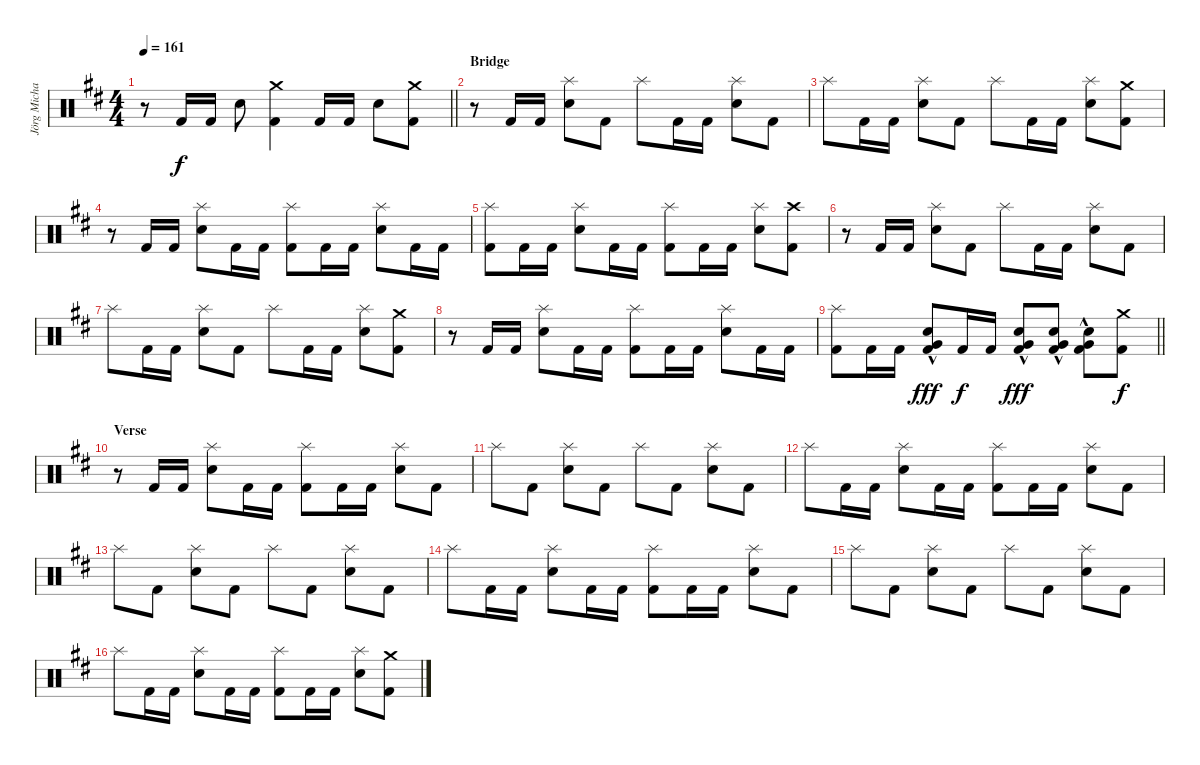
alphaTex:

\track ("Jörg Michael" "Jörg Micha") {instrument percussion}
\staff {score}
\articulation defaults
\ts (4 4)
\tempo 161
\clef neutral
\barLineRight lightlight
\ks bminor
r.8{dy f} "Kick (hit) 2".16 "Kick (hit) 2".16 "Snare (hit) 2".8 ("Crash medium (hit)" "Kick (hit) 2").4 "Kick (hit) 2".16 "Kick (hit) 2".16 "Snare (hit) 2".8 ("Crash medium (hit)" "Kick (hit) 2").8 |
\section ("" "Bridge")
r.8 "Kick (hit) 2".16 "Kick (hit) 2".16 ("Splash (hit)" "Snare (hit) 2").8 "Kick (hit) 2".8 "Splash (hit)".8 "Kick (hit) 2".16 "Kick (hit) 2".16 ("Splash (hit)" "Snare (hit) 2").8 "Kick (hit) 2".8 |
"Splash (hit)".8 "Kick (hit) 2".16 "Kick (hit) 2".16 ("Splash (hit)" "Snare (hit) 2").8 "Kick (hit) 2".8 "Splash (hit)".8 "Kick (hit) 2".16 "Kick (hit) 2".16 ("Splash (hit)" "Snare (hit) 2").8 ("Crash medium (hit)" "Kick (hit) 2").8 |
r.8 "Kick (hit) 2".16 "Kick (hit) 2".16 ("Splash (hit)" "Snare (hit) 2").8 "Kick (hit) 2".16 "Kick (hit) 2".16 ("Splash (hit)" "Kick (hit) 2").8 "Kick (hit) 2".16 "Kick (hit) 2".16 ("Splash (hit)" "Snare (hit) 2").8 "Kick (hit) 2".16 "Kick (hit) 2".16 |
("Splash (hit)" "Kick (hit) 2").8 "Kick (hit) 2".16 "Kick (hit) 2".16 ("Splash (hit)" "Snare (hit) 2").8 "Kick (hit) 2".16 "Kick (hit) 2".16 ("Splash (hit)" "Kick (hit) 2").8 "Kick (hit) 2".16 "Kick (hit) 2".16 ("Splash (hit)" "Snare (hit) 2").8 ("Crash high (hit)" "Kick (hit) 2").8 |
r.8 "Kick (hit) 2".16 "Kick (hit) 2".16 ("Splash (hit)" "Snare (hit) 2").8 "Kick (hit) 2".8 "Splash (hit)".8 "Kick (hit) 2".16 "Kick (hit) 2".16 ("Splash (hit)" "Snare (hit) 2").8 "Kick (hit) 2".8 |
"Splash (hit)".8 "Kick (hit) 2".16 "Kick (hit) 2".16 ("Splash (hit)" "Snare (hit) 2").8 "Kick (hit) 2".8 "Splash (hit)".8 "Kick (hit) 2".16 "Kick (hit) 2".16 ("Splash (hit)" "Snare (hit) 2").8 ("Crash medium (hit)" "Kick (hit) 2").8 |
r.8 "Kick (hit) 2".16 "Kick (hit) 2".16 ("Splash (hit)" "Snare (hit) 2").8 "Kick (hit) 2".16 "Kick (hit) 2".16 ("Splash (hit)" "Kick (hit) 2").8 "Kick (hit) 2".16 "Kick (hit) 2".16 ("Splash (hit)" "Snare (hit) 2").8 "Kick (hit) 2".16 "Kick (hit) 2".16 |
\barLineRight lightlight
("Splash (hit)" "Kick (hit) 2").8 "Kick (hit) 2".16 "Kick (hit) 2".16 ("Snare (hit) 2" "Very Low Tom (hit)"{hac} "Kick (hit) 2").8{dy fff} "Kick (hit) 2".16{dy f} "Kick (hit) 2".16 ("Snare (hit) 2" "Very Low Tom (hit)"{hac} "Kick (hit) 2").8{dy fff} ("Snare (hit) 2" "Very Low Tom (hit)"{hac} "Kick (hit) 2").8 ("Snare (hit) 2" "Very Low Tom (hit)"{hac} "Kick (hit) 2").8 ("Crash medium (hit)" "Kick (hit) 2").8{dy f} |
\section ("" "Verse")
r.8 "Kick (hit) 2".16 "Kick (hit) 2".16 ("Splash (hit)" "Snare (hit) 2").8 "Kick (hit) 2".16 "Kick (hit) 2".16 ("Splash (hit)" "Kick (hit) 2").8 "Kick (hit) 2".16 "Kick (hit) 2".16 ("Splash (hit)" "Snare (hit) 2").8 "Kick (hit) 2".8 |
"Splash (hit)".8 "Kick (hit) 2".8 ("Splash (hit)" "Snare (hit) 2").8 "Kick (hit) 2".8 "Splash (hit)".8 "Kick (hit) 2".8 ("Splash (hit)" "Snare (hit) 2").8 "Kick (hit) 2".8 |
"Splash (hit)".8 "Kick (hit) 2".16 "Kick (hit) 2".16 ("Splash (hit)" "Snare (hit) 2").8 "Kick (hit) 2".16 "Kick (hit) 2".16 ("Splash (hit)" "Kick (hit) 2").8 "Kick (hit) 2".16 "Kick (hit) 2".16 ("Splash (hit)" "Snare (hit) 2").8 "Kick (hit) 2".8 |
"Splash (hit)".8 "Kick (hit) 2".8 ("Splash (hit)" "Snare (hit) 2").8 "Kick (hit) 2".8 "Splash (hit)".8 "Kick (hit) 2".8 ("Splash (hit)" "Snare (hit) 2").8 "Kick (hit) 2".8 |
"Splash (hit)".8 "Kick (hit) 2".16 "Kick (hit) 2".16 ("Splash (hit)" "Snare (hit) 2").8 "Kick (hit) 2".16 "Kick (hit) 2".16 ("Splash (hit)" "Kick (hit) 2").8 "Kick (hit) 2".16 "Kick (hit) 2".16 ("Splash (hit)" "Snare (hit) 2").8 "Kick (hit) 2".8 |
"Splash (hit)".8 "Kick (hit) 2".8 ("Splash (hit)" "Snare (hit) 2").8 "Kick (hit) 2".8 "Splash (hit)".8 "Kick (hit) 2".8 ("Splash (hit)" "Snare (hit) 2").8 "Kick (hit) 2".8 |
"Splash (hit)".8 "Kick (hit) 2".16 "Kick (hit) 2".16 ("Splash (hit)" "Snare (hit) 2").8 "Kick (hit) 2".16 "Kick (hit) 2".16 ("Splash (hit)" "Kick (hit) 2").8 "Kick (hit) 2".16 "Kick (hit) 2".16 ("Splash (hit)" "Snare (hit) 2").8 ("Crash medium (hit)" "Kick (hit) 2").8
